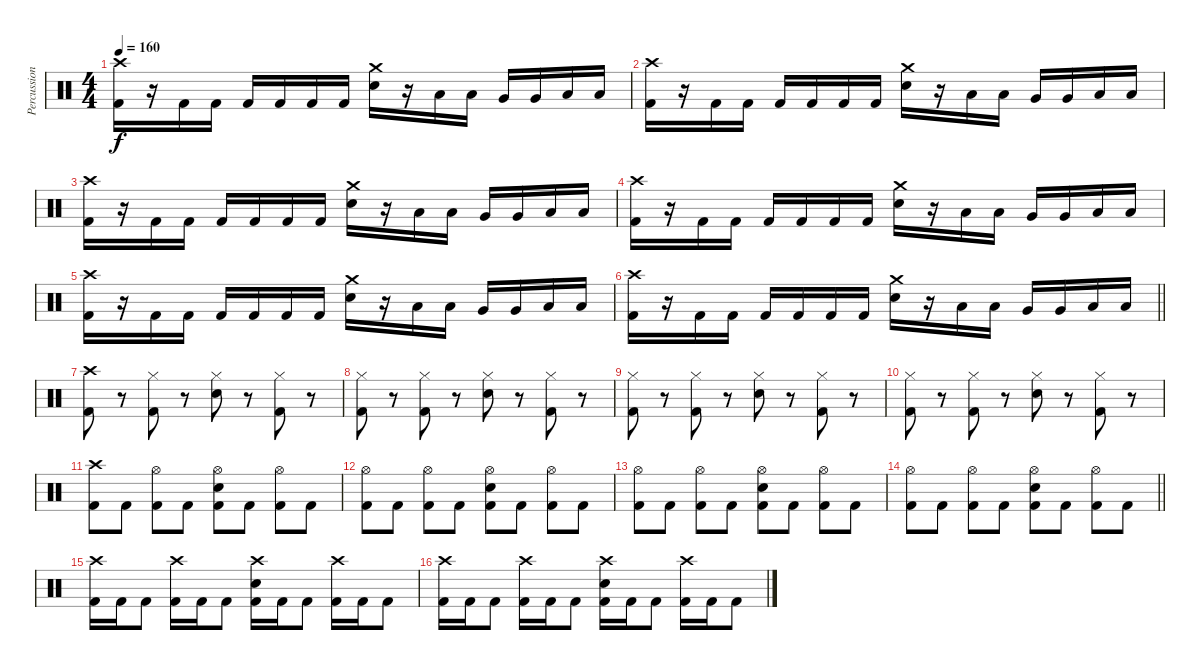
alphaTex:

\track ("Percussion" "Percussion") {instrument percussion}
\staff {score}
\articulation defaults
\ts (4 4)
\tempo 160
\clef neutral
\ks c
("Crash high (hit)" "Kick (hit) 2").16{dy f} r.16 "Kick (hit) 2".16 "Kick (hit) 2".16 "Kick (hit) 2".16 "Kick (hit) 2".16 "Kick (hit) 2".16 "Kick (hit) 2".16 ("Crash medium (hit)" "Snare (hit) 2").16 r.16 "Low Tom (hit)".16 "Low Tom (hit)".16 "Very Low Tom (hit)".16 "Very Low Tom (hit)".16 "Low Floor Tom (hit)".16 "Low Floor Tom (hit)".16 |
("Crash high (hit)" "Kick (hit) 2").16 r.16 "Kick (hit) 2".16 "Kick (hit) 2".16 "Kick (hit) 2".16 "Kick (hit) 2".16 "Kick (hit) 2".16 "Kick (hit) 2".16 ("Crash medium (hit)" "Snare (hit) 2").16 r.16 "Low Tom (hit)".16 "Low Tom (hit)".16 "Very Low Tom (hit)".16 "Very Low Tom (hit)".16 "Low Floor Tom (hit)".16 "Low Floor Tom (hit)".16 |
("Crash high (hit)" "Kick (hit) 2").16 r.16 "Kick (hit) 2".16 "Kick (hit) 2".16 "Kick (hit) 2".16 "Kick (hit) 2".16 "Kick (hit) 2".16 "Kick (hit) 2".16 ("Crash medium (hit)" "Snare (hit) 2").16 r.16 "Low Tom (hit)".16 "Low Tom (hit)".16 "Very Low Tom (hit)".16 "Very Low Tom (hit)".16 "Low Floor Tom (hit)".16 "Low Floor Tom (hit)".16 |
("Crash high (hit)" "Kick (hit) 2").16 r.16 "Kick (hit) 2".16 "Kick (hit) 2".16 "Kick (hit) 2".16 "Kick (hit) 2".16 "Kick (hit) 2".16 "Kick (hit) 2".16 ("Crash medium (hit)" "Snare (hit) 2").16 r.16 "Low Tom (hit)".16 "Low Tom (hit)".16 "Very Low Tom (hit)".16 "Very Low Tom (hit)".16 "Low Floor Tom (hit)".16 "Low Floor Tom (hit)".16 |
("Crash high (hit)" "Kick (hit) 2").16 r.16 "Kick (hit) 2".16 "Kick (hit) 2".16 "Kick (hit) 2".16 "Kick (hit) 2".16 "Kick (hit) 2".16 "Kick (hit) 2".16 ("Crash medium (hit)" "Snare (hit) 2").16 r.16 "Low Tom (hit)".16 "Low Tom (hit)".16 "Very Low Tom (hit)".16 "Very Low Tom (hit)".16 "Low Floor Tom (hit)".16 "Low Floor Tom (hit)".16 |
\barLineRight lightlight
("Crash high (hit)" "Kick (hit) 2").16 r.16 "Kick (hit) 2".16 "Kick (hit) 2".16 "Kick (hit) 2".16 "Kick (hit) 2".16 "Kick (hit) 2".16 "Kick (hit) 2".16 ("Crash medium (hit)" "Snare (hit) 2").16 r.16 "Low Tom (hit)".16 "Low Tom (hit)".16 "Very Low Tom (hit)".16 "Very Low Tom (hit)".16 "Low Floor Tom (hit)".16 "Low Floor Tom (hit)".16 |
\section ("" "")
("Crash high (hit)" "Kick (hit) 2").8 r.8 ("Hi-Hat (closed)" "Kick (hit) 2").8 r.8 ("Hi-Hat (closed)" "Snare (hit) 2").8 r.8 ("Hi-Hat (closed)" "Kick (hit) 2").8 r.8 |
("Hi-Hat (closed)" "Kick (hit) 2").8 r.8 ("Hi-Hat (closed)" "Kick (hit) 2").8 r.8 ("Hi-Hat (closed)" "Snare (hit) 2").8 r.8 ("Hi-Hat (closed)" "Kick (hit) 2").8 r.8 |
("Hi-Hat (closed)" "Kick (hit) 2").8 r.8 ("Hi-Hat (closed)" "Kick (hit) 2").8 r.8 ("Hi-Hat (closed)" "Snare (hit) 2").8 r.8 ("Hi-Hat (closed)" "Kick (hit) 2").8 r.8 |
("Hi-Hat (closed)" "Kick (hit) 2").8 r.8 ("Hi-Hat (closed)" "Kick (hit) 2").8 r.8 ("Hi-Hat (closed)" "Snare (hit) 2").8 r.8 ("Hi-Hat (closed)" "Kick (hit) 2").8 r.8 |
("Crash high (hit)" "Kick (hit) 2").8 "Kick (hit) 2".8 ("Hi-Hat (open)" "Kick (hit) 2").8 "Kick (hit) 2".8 ("Hi-Hat (open)" "Snare (hit) 2" "Kick (hit) 2").8 "Kick (hit) 2".8 ("Hi-Hat (open)" "Kick (hit) 2").8 "Kick (hit) 2".8 |
("Hi-Hat (open)" "Kick (hit) 2").8 "Kick (hit) 2".8 ("Hi-Hat (open)" "Kick (hit) 2").8 "Kick (hit) 2".8 ("Hi-Hat (open)" "Snare (hit) 2" "Kick (hit) 2").8 "Kick (hit) 2".8 ("Hi-Hat (open)" "Kick (hit) 2").8 "Kick (hit) 2".8 |
("Hi-Hat (open)" "Kick (hit) 2").8 "Kick (hit) 2".8 ("Hi-Hat (open)" "Kick (hit) 2").8 "Kick (hit) 2".8 ("Hi-Hat (open)" "Snare (hit) 2" "Kick (hit) 2").8 "Kick (hit) 2".8 ("Hi-Hat (open)" "Kick (hit) 2").8 "Kick (hit) 2".8 |
\barLineRight lightlight
("Hi-Hat (open)" "Kick (hit) 2").8 "Kick (hit) 2".8 ("Hi-Hat (open)" "Kick (hit) 2").8 "Kick (hit) 2".8 ("Hi-Hat (open)" "Snare (hit) 2" "Kick (hit) 2").8 "Kick (hit) 2".8 ("Hi-Hat (open)" "Kick (hit) 2").8 "Kick (hit) 2".8 |
\section ("" "")
("Crash high (hit)" "Kick (hit) 2").16 "Kick (hit) 2".16 "Kick (hit) 2".8 ("Crash high (hit)" "Kick (hit) 2").16 "Kick (hit) 2".16 "Kick (hit) 2".8 ("Crash high (hit)" "Snare (hit) 2" "Kick (hit) 2").16 "Kick (hit) 2".16 "Kick (hit) 2".8 ("Crash high (hit)" "Kick (hit) 2").16 "Kick (hit) 2".16 "Kick (hit) 2".8 |
("Crash high (hit)" "Kick (hit) 2").16 "Kick (hit) 2".16 "Kick (hit) 2".8 ("Crash high (hit)" "Kick (hit) 2").16 "Kick (hit) 2".16 "Kick (hit) 2".8 ("Crash high (hit)" "Snare (hit) 2" "Kick (hit) 2").16 "Kick (hit) 2".16 "Kick (hit) 2".8 ("Crash high (hit)" "Kick (hit) 2").16 "Kick (hit) 2".16 "Kick (hit) 2".8
